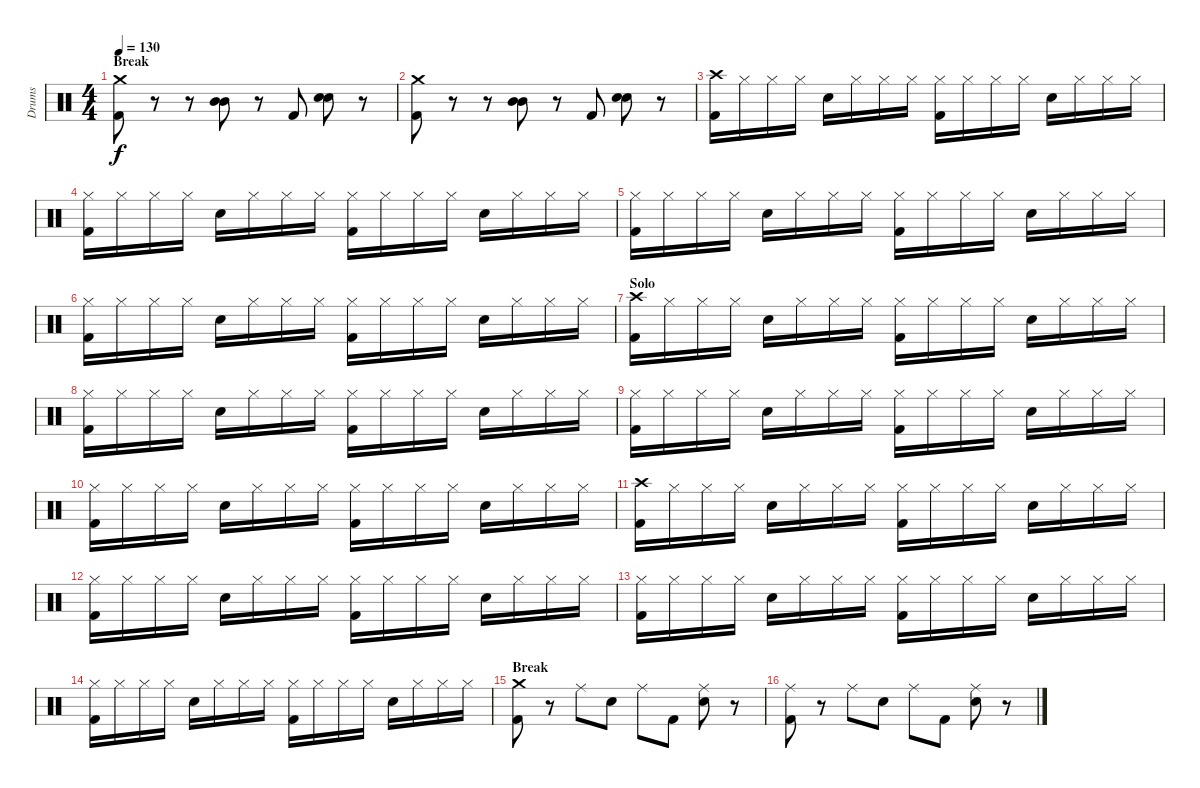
\track ("Drums" "Drums") {instrument percussion}
\staff {score}
\articulation defaults
\ts (4 4)
\section ("" "Break")
\tempo 130
\clef neutral
\ks c
("Crash medium (hit)" "Kick (hit) 2").8{dy f} r.8 r.8 ("Mid Tom (hit)" "Mid Tom (hit)").8 r.8 "Kick (hit) 2".8 ("Electric Snare (hit)" "Electric Snare (hit)").8 r.8 |
("Crash medium (hit)" "Kick (hit) 2").8 r.8 r.8 ("Mid Tom (hit)" "Mid Tom (hit)").8 r.8 "Kick (hit) 2".8 ("Electric Snare (hit)" "Electric Snare (hit)").8 r.8 |
("Crash high (hit)" "Kick (hit) 2").16 "Hi-Hat (closed)".16 "Hi-Hat (closed)".16 "Hi-Hat (closed)".16 "Electric Snare (hit)".16 "Hi-Hat (closed)".16 "Hi-Hat (closed)".16 "Hi-Hat (closed)".16 ("Hi-Hat (closed)" "Kick (hit) 2").16 "Hi-Hat (closed)".16 "Hi-Hat (closed)".16 "Hi-Hat (closed)".16 "Electric Snare (hit)".16 "Hi-Hat (closed)".16 "Hi-Hat (closed)".16 "Hi-Hat (closed)".16 |
("Hi-Hat (closed)" "Kick (hit) 2").16 "Hi-Hat (closed)".16 "Hi-Hat (closed)".16 "Hi-Hat (closed)".16 "Electric Snare (hit)".16 "Hi-Hat (closed)".16 "Hi-Hat (closed)".16 "Hi-Hat (closed)".16 ("Hi-Hat (closed)" "Kick (hit) 2").16 "Hi-Hat (closed)".16 "Hi-Hat (closed)".16 "Hi-Hat (closed)".16 "Electric Snare (hit)".16 "Hi-Hat (closed)".16 "Hi-Hat (closed)".16 "Hi-Hat (closed)".16 |
("Hi-Hat (closed)" "Kick (hit) 2").16 "Hi-Hat (closed)".16 "Hi-Hat (closed)".16 "Hi-Hat (closed)".16 "Electric Snare (hit)".16 "Hi-Hat (closed)".16 "Hi-Hat (closed)".16 "Hi-Hat (closed)".16 ("Hi-Hat (closed)" "Kick (hit) 2").16 "Hi-Hat (closed)".16 "Hi-Hat (closed)".16 "Hi-Hat (closed)".16 "Electric Snare (hit)".16 "Hi-Hat (closed)".16 "Hi-Hat (closed)".16 "Hi-Hat (closed)".16 |
("Hi-Hat (closed)" "Kick (hit) 2").16 "Hi-Hat (closed)".16 "Hi-Hat (closed)".16 "Hi-Hat (closed)".16 "Electric Snare (hit)".16 "Hi-Hat (closed)".16 "Hi-Hat (closed)".16 "Hi-Hat (closed)".16 ("Hi-Hat (closed)" "Kick (hit) 2").16 "Hi-Hat (closed)".16 "Hi-Hat (closed)".16 "Hi-Hat (closed)".16 "Electric Snare (hit)".16 "Hi-Hat (closed)".16 "Hi-Hat (closed)".16 "Hi-Hat (closed)".16 |
\section ("" "Solo")
("Crash high (hit)" "Kick (hit) 2").16 "Hi-Hat (closed)".16 "Hi-Hat (closed)".16 "Hi-Hat (closed)".16 "Electric Snare (hit)".16 "Hi-Hat (closed)".16 "Hi-Hat (closed)".16 "Hi-Hat (closed)".16 ("Hi-Hat (closed)" "Kick (hit) 2").16 "Hi-Hat (closed)".16 "Hi-Hat (closed)".16 "Hi-Hat (closed)".16 "Electric Snare (hit)".16 "Hi-Hat (closed)".16 "Hi-Hat (closed)".16 "Hi-Hat (closed)".16 |
("Hi-Hat (closed)" "Kick (hit) 2").16 "Hi-Hat (closed)".16 "Hi-Hat (closed)".16 "Hi-Hat (closed)".16 "Electric Snare (hit)".16 "Hi-Hat (closed)".16 "Hi-Hat (closed)".16 "Hi-Hat (closed)".16 ("Hi-Hat (closed)" "Kick (hit) 2").16 "Hi-Hat (closed)".16 "Hi-Hat (closed)".16 "Hi-Hat (closed)".16 "Electric Snare (hit)".16 "Hi-Hat (closed)".16 "Hi-Hat (closed)".16 "Hi-Hat (closed)".16 |
("Hi-Hat (closed)" "Kick (hit) 2").16 "Hi-Hat (closed)".16 "Hi-Hat (closed)".16 "Hi-Hat (closed)".16 "Electric Snare (hit)".16 "Hi-Hat (closed)".16 "Hi-Hat (closed)".16 "Hi-Hat (closed)".16 ("Hi-Hat (closed)" "Kick (hit) 2").16 "Hi-Hat (closed)".16 "Hi-Hat (closed)".16 "Hi-Hat (closed)".16 "Electric Snare (hit)".16 "Hi-Hat (closed)".16 "Hi-Hat (closed)".16 "Hi-Hat (closed)".16 |
("Hi-Hat (closed)" "Kick (hit) 2").16 "Hi-Hat (closed)".16 "Hi-Hat (closed)".16 "Hi-Hat (closed)".16 "Electric Snare (hit)".16 "Hi-Hat (closed)".16 "Hi-Hat (closed)".16 "Hi-Hat (closed)".16 ("Hi-Hat (closed)" "Kick (hit) 2").16 "Hi-Hat (closed)".16 "Hi-Hat (closed)".16 "Hi-Hat (closed)".16 "Electric Snare (hit)".16 "Hi-Hat (closed)".16 "Hi-Hat (closed)".16 "Hi-Hat (closed)".16 |
("Crash high (hit)" "Kick (hit) 2").16 "Hi-Hat (closed)".16 "Hi-Hat (closed)".16 "Hi-Hat (closed)".16 "Electric Snare (hit)".16 "Hi-Hat (closed)".16 "Hi-Hat (closed)".16 "Hi-Hat (closed)".16 ("Hi-Hat (closed)" "Kick (hit) 2").16 "Hi-Hat (closed)".16 "Hi-Hat (closed)".16 "Hi-Hat (closed)".16 "Electric Snare (hit)".16 "Hi-Hat (closed)".16 "Hi-Hat (closed)".16 "Hi-Hat (closed)".16 |
("Hi-Hat (closed)" "Kick (hit) 2").16 "Hi-Hat (closed)".16 "Hi-Hat (closed)".16 "Hi-Hat (closed)".16 "Electric Snare (hit)".16 "Hi-Hat (closed)".16 "Hi-Hat (closed)".16 "Hi-Hat (closed)".16 ("Hi-Hat (closed)" "Kick (hit) 2").16 "Hi-Hat (closed)".16 "Hi-Hat (closed)".16 "Hi-Hat (closed)".16 "Electric Snare (hit)".16 "Hi-Hat (closed)".16 "Hi-Hat (closed)".16 "Hi-Hat (closed)".16 |
("Hi-Hat (closed)" "Kick (hit) 2").16 "Hi-Hat (closed)".16 "Hi-Hat (closed)".16 "Hi-Hat (closed)".16 "Electric Snare (hit)".16 "Hi-Hat (closed)".16 "Hi-Hat (closed)".16 "Hi-Hat (closed)".16 ("Hi-Hat (closed)" "Kick (hit) 2").16 "Hi-Hat (closed)".16 "Hi-Hat (closed)".16 "Hi-Hat (closed)".16 "Electric Snare (hit)".16 "Hi-Hat (closed)".16 "Hi-Hat (closed)".16 "Hi-Hat (closed)".16 |
("Hi-Hat (closed)" "Kick (hit) 2").16 "Hi-Hat (closed)".16 "Hi-Hat (closed)".16 "Hi-Hat (closed)".16 "Electric Snare (hit)".16 "Hi-Hat (closed)".16 "Hi-Hat (closed)".16 "Hi-Hat (closed)".16 ("Hi-Hat (closed)" "Kick (hit) 2").16 "Hi-Hat (closed)".16 "Hi-Hat (closed)".16 "Hi-Hat (closed)".16 "Electric Snare (hit)".16 "Hi-Hat (closed)".16 "Hi-Hat (closed)".16 "Hi-Hat (closed)".16 |
\section ("" "Break")
("Crash medium (hit)" "Kick (hit) 2").8 r.8 "Ride (middle)".8 "Electric Snare (hit)".8 "Ride (middle)".8 "Kick (hit) 2".8 ("Ride (middle)" "Electric Snare (hit)").8 r.8 |
("Ride (middle)" "Kick (hit) 2").8 r.8 "Ride (middle)".8 "Electric Snare (hit)".8 "Ride (middle)".8 "Kick (hit) 2".8 ("Ride (middle)" "Electric Snare (hit)").8 r.8
